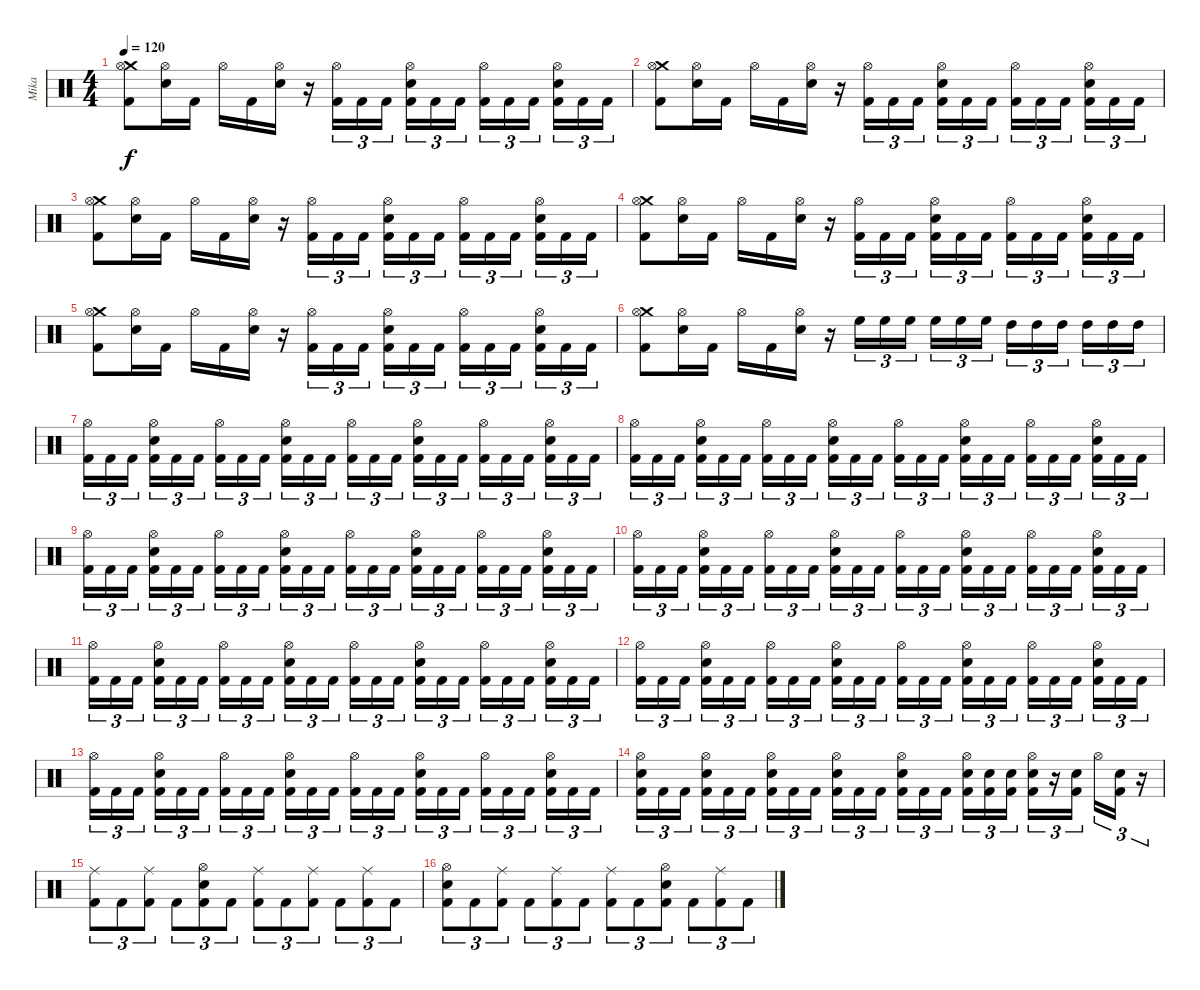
\track ("Mika" "Mika") {instrument percussion}
\staff {score}
\articulation defaults
\ts (4 4)
\tempo 120
\clef neutral
\ks c
("Crash medium (hit)" "Hi-Hat (open)" "Kick (hit) 2").8{dy f} ("Hi-Hat (open)" "Electric Snare (hit)").16 "Kick (hit) 2".16 "Hi-Hat (open)".16 "Kick (hit) 2".16 ("Hi-Hat (open)" "Electric Snare (hit)").16 r.16 ("Hi-Hat (open)" "Kick (hit) 2").16{tu (3 2)} "Kick (hit) 2".16{tu (3 2)} "Kick (hit) 2".16{tu (3 2) beam splitsecondary} ("Hi-Hat (open)" "Electric Snare (hit)" "Kick (hit) 2").16{tu (3 2)} "Kick (hit) 2".16{tu (3 2)} "Kick (hit) 2".16{tu (3 2)} ("Hi-Hat (open)" "Kick (hit) 2").16{tu (3 2)} "Kick (hit) 2".16{tu (3 2)} "Kick (hit) 2".16{tu (3 2) beam splitsecondary} ("Hi-Hat (open)" "Electric Snare (hit)" "Kick (hit) 2").16{tu (3 2)} "Kick (hit) 2".16{tu (3 2)} "Kick (hit) 2".16{tu (3 2)} |
("Crash medium (hit)" "Hi-Hat (open)" "Kick (hit) 2").8 ("Hi-Hat (open)" "Electric Snare (hit)").16 "Kick (hit) 2".16 "Hi-Hat (open)".16 "Kick (hit) 2".16 ("Hi-Hat (open)" "Electric Snare (hit)").16 r.16 ("Hi-Hat (open)" "Kick (hit) 2").16{tu (3 2)} "Kick (hit) 2".16{tu (3 2)} "Kick (hit) 2".16{tu (3 2) beam splitsecondary} ("Hi-Hat (open)" "Electric Snare (hit)" "Kick (hit) 2").16{tu (3 2)} "Kick (hit) 2".16{tu (3 2)} "Kick (hit) 2".16{tu (3 2)} ("Hi-Hat (open)" "Kick (hit) 2").16{tu (3 2)} "Kick (hit) 2".16{tu (3 2)} "Kick (hit) 2".16{tu (3 2) beam splitsecondary} ("Hi-Hat (open)" "Electric Snare (hit)" "Kick (hit) 2").16{tu (3 2)} "Kick (hit) 2".16{tu (3 2)} "Kick (hit) 2".16{tu (3 2)} |
("Crash medium (hit)" "Hi-Hat (open)" "Kick (hit) 2").8 ("Hi-Hat (open)" "Electric Snare (hit)").16 "Kick (hit) 2".16 "Hi-Hat (open)".16 "Kick (hit) 2".16 ("Hi-Hat (open)" "Electric Snare (hit)").16 r.16 ("Hi-Hat (open)" "Kick (hit) 2").16{tu (3 2)} "Kick (hit) 2".16{tu (3 2)} "Kick (hit) 2".16{tu (3 2) beam splitsecondary} ("Hi-Hat (open)" "Electric Snare (hit)" "Kick (hit) 2").16{tu (3 2)} "Kick (hit) 2".16{tu (3 2)} "Kick (hit) 2".16{tu (3 2)} ("Hi-Hat (open)" "Kick (hit) 2").16{tu (3 2)} "Kick (hit) 2".16{tu (3 2)} "Kick (hit) 2".16{tu (3 2) beam splitsecondary} ("Hi-Hat (open)" "Electric Snare (hit)" "Kick (hit) 2").16{tu (3 2)} "Kick (hit) 2".16{tu (3 2)} "Kick (hit) 2".16{tu (3 2)} |
("Crash medium (hit)" "Hi-Hat (open)" "Kick (hit) 2").8 ("Hi-Hat (open)" "Electric Snare (hit)").16 "Kick (hit) 2".16 "Hi-Hat (open)".16 "Kick (hit) 2".16 ("Hi-Hat (open)" "Electric Snare (hit)").16 r.16 ("Hi-Hat (open)" "Kick (hit) 2").16{tu (3 2)} "Kick (hit) 2".16{tu (3 2)} "Kick (hit) 2".16{tu (3 2) beam splitsecondary} ("Hi-Hat (open)" "Electric Snare (hit)" "Kick (hit) 2").16{tu (3 2)} "Kick (hit) 2".16{tu (3 2)} "Kick (hit) 2".16{tu (3 2)} ("Hi-Hat (open)" "Kick (hit) 2").16{tu (3 2)} "Kick (hit) 2".16{tu (3 2)} "Kick (hit) 2".16{tu (3 2) beam splitsecondary} ("Hi-Hat (open)" "Electric Snare (hit)" "Kick (hit) 2").16{tu (3 2)} "Kick (hit) 2".16{tu (3 2)} "Kick (hit) 2".16{tu (3 2)} |
("Crash medium (hit)" "Hi-Hat (open)" "Kick (hit) 2").8 ("Hi-Hat (open)" "Electric Snare (hit)").16 "Kick (hit) 2".16 "Hi-Hat (open)".16 "Kick (hit) 2".16 ("Hi-Hat (open)" "Electric Snare (hit)").16 r.16 ("Hi-Hat (open)" "Kick (hit) 2").16{tu (3 2)} "Kick (hit) 2".16{tu (3 2)} "Kick (hit) 2".16{tu (3 2) beam splitsecondary} ("Hi-Hat (open)" "Electric Snare (hit)" "Kick (hit) 2").16{tu (3 2)} "Kick (hit) 2".16{tu (3 2)} "Kick (hit) 2".16{tu (3 2)} ("Hi-Hat (open)" "Kick (hit) 2").16{tu (3 2)} "Kick (hit) 2".16{tu (3 2)} "Kick (hit) 2".16{tu (3 2) beam splitsecondary} ("Hi-Hat (open)" "Electric Snare (hit)" "Kick (hit) 2").16{tu (3 2)} "Kick (hit) 2".16{tu (3 2)} "Kick (hit) 2".16{tu (3 2)} |
("Crash medium (hit)" "Hi-Hat (open)" "Kick (hit) 2").8 ("Hi-Hat (open)" "Electric Snare (hit)").16 "Kick (hit) 2".16 "Hi-Hat (open)".16 "Kick (hit) 2".16 ("Hi-Hat (open)" "Electric Snare (hit)").16 r.16 "High Floor Tom (hit)".16{tu (3 2)} "High Floor Tom (hit)".16{tu (3 2)} "High Floor Tom (hit)".16{tu (3 2) beam splitsecondary} "High Floor Tom (hit)".16{tu (3 2)} "High Floor Tom (hit)".16{tu (3 2)} "High Floor Tom (hit)".16{tu (3 2)} "High Tom (hit)".16{tu (3 2)} "High Tom (hit)".16{tu (3 2)} "High Tom (hit)".16{tu (3 2) beam splitsecondary} "High Tom (hit)".16{tu (3 2)} "High Tom (hit)".16{tu (3 2)} "High Tom (hit)".16{tu (3 2)} |
("Hi-Hat (open)" "Kick (hit) 2").16{tu (3 2)} "Kick (hit) 2".16{tu (3 2)} "Kick (hit) 2".16{tu (3 2) beam splitsecondary} ("Hi-Hat (open)" "Electric Snare (hit)" "Kick (hit) 2").16{tu (3 2)} "Kick (hit) 2".16{tu (3 2)} "Kick (hit) 2".16{tu (3 2)} ("Hi-Hat (open)" "Kick (hit) 2").16{tu (3 2)} "Kick (hit) 2".16{tu (3 2)} "Kick (hit) 2".16{tu (3 2) beam splitsecondary} ("Hi-Hat (open)" "Electric Snare (hit)" "Kick (hit) 2").16{tu (3 2)} "Kick (hit) 2".16{tu (3 2)} "Kick (hit) 2".16{tu (3 2)} ("Hi-Hat (open)" "Kick (hit) 2").16{tu (3 2)} "Kick (hit) 2".16{tu (3 2)} "Kick (hit) 2".16{tu (3 2) beam splitsecondary} ("Hi-Hat (open)" "Electric Snare (hit)" "Kick (hit) 2").16{tu (3 2)} "Kick (hit) 2".16{tu (3 2)} "Kick (hit) 2".16{tu (3 2)} ("Hi-Hat (open)" "Kick (hit) 2").16{tu (3 2)} "Kick (hit) 2".16{tu (3 2)} "Kick (hit) 2".16{tu (3 2) beam splitsecondary} ("Hi-Hat (open)" "Electric Snare (hit)" "Kick (hit) 2").16{tu (3 2)} "Kick (hit) 2".16{tu (3 2)} "Kick (hit) 2".16{tu (3 2)} |
("Hi-Hat (open)" "Kick (hit) 2").16{tu (3 2)} "Kick (hit) 2".16{tu (3 2)} "Kick (hit) 2".16{tu (3 2) beam splitsecondary} ("Hi-Hat (open)" "Electric Snare (hit)" "Kick (hit) 2").16{tu (3 2)} "Kick (hit) 2".16{tu (3 2)} "Kick (hit) 2".16{tu (3 2)} ("Hi-Hat (open)" "Kick (hit) 2").16{tu (3 2)} "Kick (hit) 2".16{tu (3 2)} "Kick (hit) 2".16{tu (3 2) beam splitsecondary} ("Hi-Hat (open)" "Electric Snare (hit)" "Kick (hit) 2").16{tu (3 2)} "Kick (hit) 2".16{tu (3 2)} "Kick (hit) 2".16{tu (3 2)} ("Hi-Hat (open)" "Kick (hit) 2").16{tu (3 2)} "Kick (hit) 2".16{tu (3 2)} "Kick (hit) 2".16{tu (3 2) beam splitsecondary} ("Hi-Hat (open)" "Electric Snare (hit)" "Kick (hit) 2").16{tu (3 2)} "Kick (hit) 2".16{tu (3 2)} "Kick (hit) 2".16{tu (3 2)} ("Hi-Hat (open)" "Kick (hit) 2").16{tu (3 2)} "Kick (hit) 2".16{tu (3 2)} "Kick (hit) 2".16{tu (3 2) beam splitsecondary} ("Hi-Hat (open)" "Electric Snare (hit)" "Kick (hit) 2").16{tu (3 2)} "Kick (hit) 2".16{tu (3 2)} "Kick (hit) 2".16{tu (3 2)} |
("Hi-Hat (open)" "Kick (hit) 2").16{tu (3 2)} "Kick (hit) 2".16{tu (3 2)} "Kick (hit) 2".16{tu (3 2) beam splitsecondary} ("Hi-Hat (open)" "Electric Snare (hit)" "Kick (hit) 2").16{tu (3 2)} "Kick (hit) 2".16{tu (3 2)} "Kick (hit) 2".16{tu (3 2)} ("Hi-Hat (open)" "Kick (hit) 2").16{tu (3 2)} "Kick (hit) 2".16{tu (3 2)} "Kick (hit) 2".16{tu (3 2) beam splitsecondary} ("Hi-Hat (open)" "Electric Snare (hit)" "Kick (hit) 2").16{tu (3 2)} "Kick (hit) 2".16{tu (3 2)} "Kick (hit) 2".16{tu (3 2)} ("Hi-Hat (open)" "Kick (hit) 2").16{tu (3 2)} "Kick (hit) 2".16{tu (3 2)} "Kick (hit) 2".16{tu (3 2) beam splitsecondary} ("Hi-Hat (open)" "Electric Snare (hit)" "Kick (hit) 2").16{tu (3 2)} "Kick (hit) 2".16{tu (3 2)} "Kick (hit) 2".16{tu (3 2)} ("Hi-Hat (open)" "Kick (hit) 2").16{tu (3 2)} "Kick (hit) 2".16{tu (3 2)} "Kick (hit) 2".16{tu (3 2) beam splitsecondary} ("Hi-Hat (open)" "Electric Snare (hit)" "Kick (hit) 2").16{tu (3 2)} "Kick (hit) 2".16{tu (3 2)} "Kick (hit) 2".16{tu (3 2)} |
("Hi-Hat (open)" "Kick (hit) 2").16{tu (3 2)} "Kick (hit) 2".16{tu (3 2)} "Kick (hit) 2".16{tu (3 2) beam splitsecondary} ("Hi-Hat (open)" "Electric Snare (hit)" "Kick (hit) 2").16{tu (3 2)} "Kick (hit) 2".16{tu (3 2)} "Kick (hit) 2".16{tu (3 2)} ("Hi-Hat (open)" "Kick (hit) 2").16{tu (3 2)} "Kick (hit) 2".16{tu (3 2)} "Kick (hit) 2".16{tu (3 2) beam splitsecondary} ("Hi-Hat (open)" "Electric Snare (hit)" "Kick (hit) 2").16{tu (3 2)} "Kick (hit) 2".16{tu (3 2)} "Kick (hit) 2".16{tu (3 2)} ("Hi-Hat (open)" "Kick (hit) 2").16{tu (3 2)} "Kick (hit) 2".16{tu (3 2)} "Kick (hit) 2".16{tu (3 2) beam splitsecondary} ("Hi-Hat (open)" "Electric Snare (hit)" "Kick (hit) 2").16{tu (3 2)} "Kick (hit) 2".16{tu (3 2)} "Kick (hit) 2".16{tu (3 2)} ("Hi-Hat (open)" "Kick (hit) 2").16{tu (3 2)} "Kick (hit) 2".16{tu (3 2)} "Kick (hit) 2".16{tu (3 2) beam splitsecondary} ("Hi-Hat (open)" "Electric Snare (hit)" "Kick (hit) 2").16{tu (3 2)} "Kick (hit) 2".16{tu (3 2)} "Kick (hit) 2".16{tu (3 2)} |
("Hi-Hat (open)" "Kick (hit) 2").16{tu (3 2)} "Kick (hit) 2".16{tu (3 2)} "Kick (hit) 2".16{tu (3 2) beam splitsecondary} ("Hi-Hat (open)" "Electric Snare (hit)" "Kick (hit) 2").16{tu (3 2)} "Kick (hit) 2".16{tu (3 2)} "Kick (hit) 2".16{tu (3 2)} ("Hi-Hat (open)" "Kick (hit) 2").16{tu (3 2)} "Kick (hit) 2".16{tu (3 2)} "Kick (hit) 2".16{tu (3 2) beam splitsecondary} ("Hi-Hat (open)" "Electric Snare (hit)" "Kick (hit) 2").16{tu (3 2)} "Kick (hit) 2".16{tu (3 2)} "Kick (hit) 2".16{tu (3 2)} ("Hi-Hat (open)" "Kick (hit) 2").16{tu (3 2)} "Kick (hit) 2".16{tu (3 2)} "Kick (hit) 2".16{tu (3 2) beam splitsecondary} ("Hi-Hat (open)" "Electric Snare (hit)" "Kick (hit) 2").16{tu (3 2)} "Kick (hit) 2".16{tu (3 2)} "Kick (hit) 2".16{tu (3 2)} ("Hi-Hat (open)" "Kick (hit) 2").16{tu (3 2)} "Kick (hit) 2".16{tu (3 2)} "Kick (hit) 2".16{tu (3 2) beam splitsecondary} ("Hi-Hat (open)" "Electric Snare (hit)" "Kick (hit) 2").16{tu (3 2)} "Kick (hit) 2".16{tu (3 2)} "Kick (hit) 2".16{tu (3 2)} |
("Hi-Hat (open)" "Kick (hit) 2").16{tu (3 2)} "Kick (hit) 2".16{tu (3 2)} "Kick (hit) 2".16{tu (3 2) beam splitsecondary} ("Hi-Hat (open)" "Electric Snare (hit)" "Kick (hit) 2").16{tu (3 2)} "Kick (hit) 2".16{tu (3 2)} "Kick (hit) 2".16{tu (3 2)} ("Hi-Hat (open)" "Kick (hit) 2").16{tu (3 2)} "Kick (hit) 2".16{tu (3 2)} "Kick (hit) 2".16{tu (3 2) beam splitsecondary} ("Hi-Hat (open)" "Electric Snare (hit)" "Kick (hit) 2").16{tu (3 2)} "Kick (hit) 2".16{tu (3 2)} "Kick (hit) 2".16{tu (3 2)} ("Hi-Hat (open)" "Kick (hit) 2").16{tu (3 2)} "Kick (hit) 2".16{tu (3 2)} "Kick (hit) 2".16{tu (3 2) beam splitsecondary} ("Hi-Hat (open)" "Electric Snare (hit)" "Kick (hit) 2").16{tu (3 2)} "Kick (hit) 2".16{tu (3 2)} "Kick (hit) 2".16{tu (3 2)} ("Hi-Hat (open)" "Kick (hit) 2").16{tu (3 2)} "Kick (hit) 2".16{tu (3 2)} "Kick (hit) 2".16{tu (3 2) beam splitsecondary} ("Hi-Hat (open)" "Electric Snare (hit)" "Kick (hit) 2").16{tu (3 2)} "Kick (hit) 2".16{tu (3 2)} "Kick (hit) 2".16{tu (3 2)} |
("Hi-Hat (open)" "Kick (hit) 2").16{tu (3 2)} "Kick (hit) 2".16{tu (3 2)} "Kick (hit) 2".16{tu (3 2) beam splitsecondary} ("Hi-Hat (open)" "Electric Snare (hit)" "Kick (hit) 2").16{tu (3 2)} "Kick (hit) 2".16{tu (3 2)} "Kick (hit) 2".16{tu (3 2)} ("Hi-Hat (open)" "Kick (hit) 2").16{tu (3 2)} "Kick (hit) 2".16{tu (3 2)} "Kick (hit) 2".16{tu (3 2) beam splitsecondary} ("Hi-Hat (open)" "Electric Snare (hit)" "Kick (hit) 2").16{tu (3 2)} "Kick (hit) 2".16{tu (3 2)} "Kick (hit) 2".16{tu (3 2)} ("Hi-Hat (open)" "Kick (hit) 2").16{tu (3 2)} "Kick (hit) 2".16{tu (3 2)} "Kick (hit) 2".16{tu (3 2) beam splitsecondary} ("Hi-Hat (open)" "Electric Snare (hit)" "Kick (hit) 2").16{tu (3 2)} "Kick (hit) 2".16{tu (3 2)} "Kick (hit) 2".16{tu (3 2)} ("Hi-Hat (open)" "Kick (hit) 2").16{tu (3 2)} "Kick (hit) 2".16{tu (3 2)} "Kick (hit) 2".16{tu (3 2) beam splitsecondary} ("Hi-Hat (open)" "Electric Snare (hit)" "Kick (hit) 2").16{tu (3 2)} "Kick (hit) 2".16{tu (3 2)} "Kick (hit) 2".16{tu (3 2)} |
("Hi-Hat (open)" "Electric Snare (hit)" "Kick (hit) 2").16{tu (3 2)} "Kick (hit) 2".16{tu (3 2)} "Kick (hit) 2".16{tu (3 2) beam splitsecondary} ("Hi-Hat (open)" "Electric Snare (hit)" "Kick (hit) 2").16{tu (3 2)} "Kick (hit) 2".16{tu (3 2)} "Kick (hit) 2".16{tu (3 2)} ("Hi-Hat (open)" "Electric Snare (hit)" "Kick (hit) 2").16{tu (3 2)} "Kick (hit) 2".16{tu (3 2)} "Kick (hit) 2".16{tu (3 2) beam splitsecondary} ("Hi-Hat (open)" "Electric Snare (hit)" "Kick (hit) 2").16{tu (3 2)} "Kick (hit) 2".16{tu (3 2)} "Kick (hit) 2".16{tu (3 2)} ("Hi-Hat (open)" "Electric Snare (hit)" "Kick (hit) 2").16{tu (3 2)} "Kick (hit) 2".16{tu (3 2)} "Kick (hit) 2".16{tu (3 2) beam splitsecondary} ("Hi-Hat (open)" "Electric Snare (hit)" "Kick (hit) 2").16{tu (3 2)} ("Electric Snare (hit)" "Kick (hit) 2").16{tu (3 2)} ("Electric Snare (hit)" "Kick (hit) 2").16{tu (3 2)} ("Hi-Hat (open)" "Electric Snare (hit)" "Kick (hit) 2").16{tu (3 2)} r.16{tu (3 2)} ("Electric Snare (hit)" "Kick (hit) 2").16{tu (3 2) beam splitsecondary} "Hi-Hat (open)".16{tu (3 2)} ("Electric Snare (hit)" "Kick (hit) 2").16{tu (3 2)} r.16{tu (3 2)} |
("Ride (middle)" "Kick (hit) 2").8{tu (3 2)} "Kick (hit) 2".8{tu (3 2)} ("Ride (middle)" "Kick (hit) 2").8{tu (3 2)} "Kick (hit) 2".8{tu (3 2)} ("Hi-Hat (open)" "Electric Snare (hit)" "Kick (hit) 2").8{tu (3 2)} "Kick (hit) 2".8{tu (3 2)} ("Ride (middle)" "Kick (hit) 2").8{tu (3 2)} "Kick (hit) 2".8{tu (3 2)} ("Ride (middle)" "Kick (hit) 2").8{tu (3 2)} "Kick (hit) 2".8{tu (3 2)} ("Ride (middle)" "Kick (hit) 2").8{tu (3 2)} "Kick (hit) 2".8{tu (3 2)} |
("Hi-Hat (open)" "Electric Snare (hit)" "Kick (hit) 2").8{tu (3 2)} "Kick (hit) 2".8{tu (3 2)} ("Ride (middle)" "Kick (hit) 2").8{tu (3 2)} "Kick (hit) 2".8{tu (3 2)} ("Ride (middle)" "Kick (hit) 2").8{tu (3 2)} "Kick (hit) 2".8{tu (3 2)} ("Ride (middle)" "Kick (hit) 2").8{tu (3 2)} "Kick (hit) 2".8{tu (3 2)} ("Hi-Hat (open)" "Electric Snare (hit)" "Kick (hit) 2").8{tu (3 2)} "Kick (hit) 2".8{tu (3 2)} ("Ride (middle)" "Kick (hit) 2").8{tu (3 2)} "Kick (hit) 2".8{tu (3 2)}
